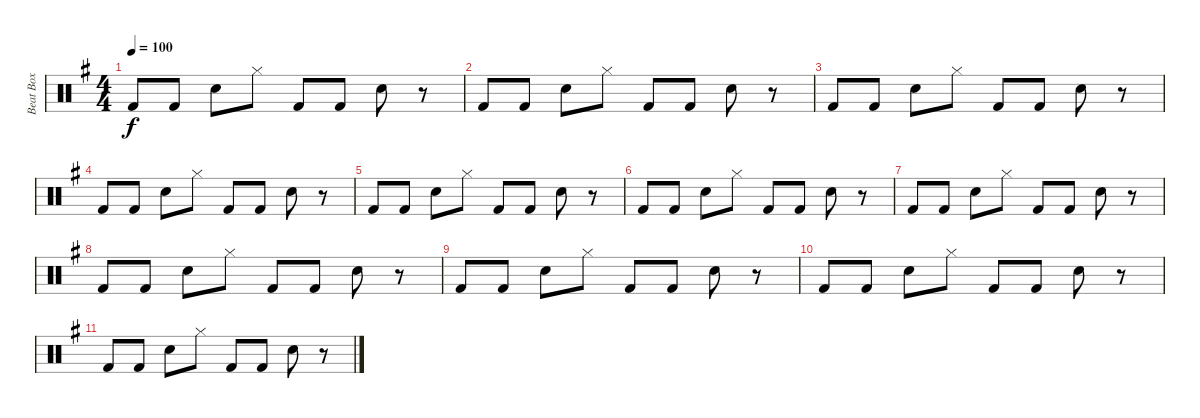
\track ("Beat Box" "Beat Box") {instrument percussion}
\staff {score}
\articulation defaults
\ts (4 4)
\tempo 100
\clef neutral
\ks g "Kick (hit) 2".8{dy f} "Kick (hit) 2".8 "Snare (hit) 2".8 "Hi-Hat (closed)".8 "Kick (hit) 2".8 "Kick (hit) 2".8 "Snare (hit) 2".8
r.8 |
"Kick (hit) 2".8 "Kick (hit) 2".8 "Snare (hit) 2".8 "Hi-Hat (closed)".8 "Kick (hit) 2".8 "Kick (hit) 2".8 "Snare (hit) 2".8 r.8 |
"Kick (hit) 2".8 "Kick (hit) 2".8 "Snare (hit) 2".8 "Hi-Hat (closed)".8 "Kick (hit) 2".8 "Kick (hit) 2".8 "Snare (hit) 2".8 r.8 |
"Kick (hit) 2".8 "Kick (hit) 2".8 "Snare (hit) 2".8 "Hi-Hat (closed)".8 "Kick (hit) 2".8 "Kick (hit) 2".8 "Snare (hit) 2".8 r.8 |
"Kick (hit) 2".8 "Kick (hit) 2".8 "Snare (hit) 2".8 "Hi-Hat (closed)".8 "Kick (hit) 2".8 "Kick (hit) 2".8 "Snare (hit) 2".8 r.8 |
"Kick (hit) 2".8 "Kick (hit) 2".8 "Snare (hit) 2".8 "Hi-Hat (closed)".8 "Kick (hit) 2".8 "Kick (hit) 2".8 "Snare (hit) 2".8 r.8 |
"Kick (hit) 2".8 "Kick (hit) 2".8 "Snare (hit) 2".8 "Hi-Hat (closed)".8 "Kick (hit) 2".8 "Kick (hit) 2".8 "Snare (hit) 2".8 r.8 |
"Kick (hit) 2".8 "Kick (hit) 2".8 "Snare (hit) 2".8 "Hi-Hat (closed)".8 "Kick (hit) 2".8 "Kick (hit) 2".8 "Snare (hit) 2".8 r.8 |
"Kick (hit) 2".8 "Kick (hit) 2".8 "Snare (hit) 2".8 "Hi-Hat (closed)".8 "Kick (hit) 2".8 "Kick (hit) 2".8 "Snare (hit) 2".8 r.8 |
"Kick (hit) 2".8 "Kick (hit) 2".8 "Snare (hit) 2".8 "Hi-Hat (closed)".8 "Kick (hit) 2".8 "Kick (hit) 2".8 "Snare (hit) 2".8 r.8 |
"Kick (hit) 2".8 "Kick (hit) 2".8 "Snare (hit) 2".8 "Hi-Hat (closed)".8 "Kick (hit) 2".8 "Kick (hit) 2".8 "Snare (hit) 2".8 r.8
